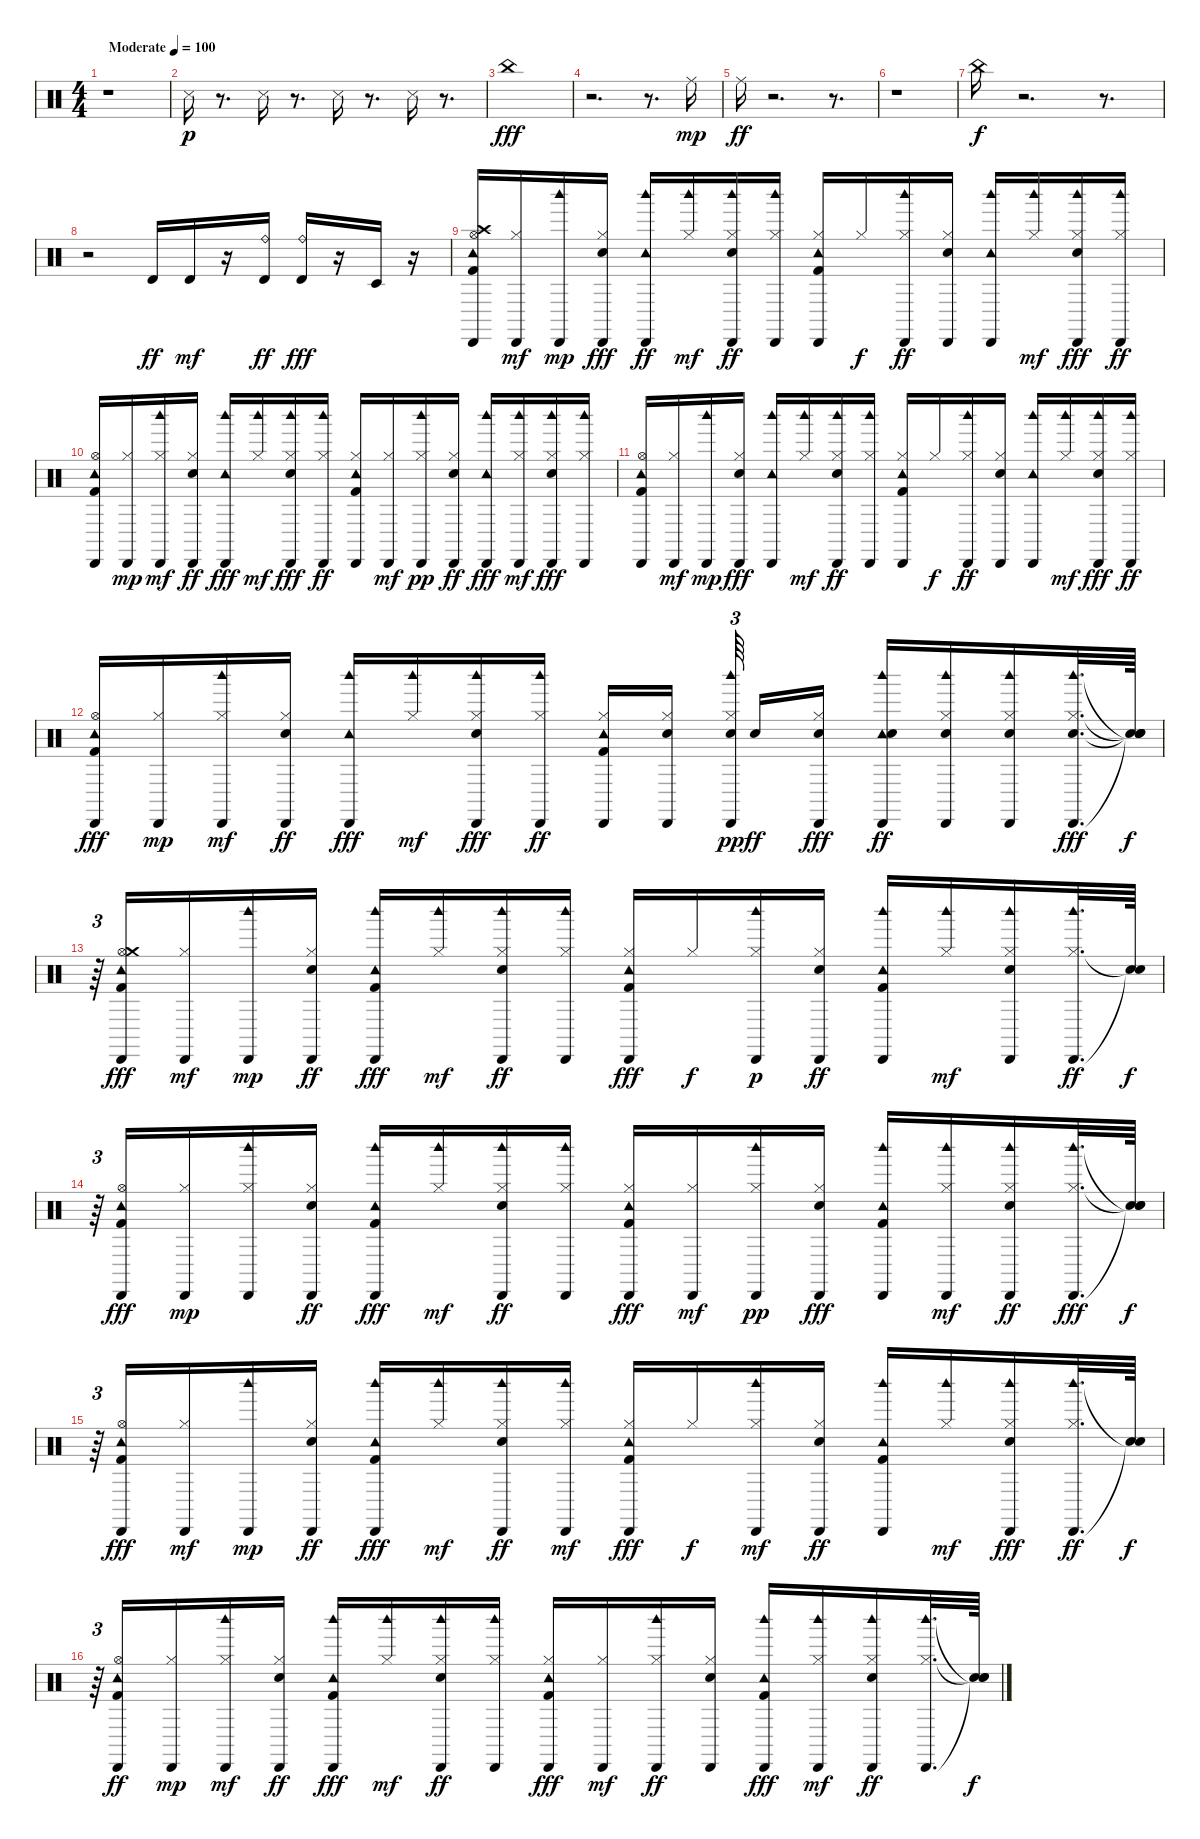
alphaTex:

\track "" {instrument percussion}
\staff {score}
\articulation defaults
\ts (4 4)
\tempo (100 "Moderate")
\clef neutral
\ks c
r.1{dy p} |
"Snare (side stick) 3".16 r.8{d} "Snare (side stick) 3".16{volume 13 balance 8} r.8{d} "Snare (side stick) 3".16 r.8{d} "Snare (side stick) 3".16 r.8{d} |
"China (hit)".1{dy fff} |
r.2{d} r.8{d} "Ride (middle)".16{dy mp} |
"Ride (middle)".16{dy ff} r.2{d} r.8{d} |
r.1 |
"China (hit)".16{dy f} r.2{d} r.8{d} |
r.2 "Timbale high (hit)".16{dy ff} "Timbale high (hit)".16{dy mf} r.16 ("Timbale high (hit)" "Ride (bell)").16{dy ff} ("Ride (bell)" "Timbale high (hit)").16{dy fff} r.16 "Timbale low (hit)".16 r.16 |
("Tambourine (hit)" "Crash high (hit)" "Kick (hit) 2" "Hi-Hat (open)" "Cabasa (hit)").16 ("Hi-Hat (closed)" "Cabasa (hit)").16{dy mf} ("Cabasa (hit)" "Woodblock high (hit)").16{dy mp} ("Hi-Hat (closed)" "Electric Snare (hit)" "Cabasa (hit)").16{dy fff} ("Cabasa (hit)" "Tambourine (hit)" "Woodblock high (hit)").16{dy ff} ("Woodblock high (hit)" "Hi-Hat (closed)").16{dy mf} ("Cabasa (hit)" "Woodblock high (hit)" "Electric Snare (hit)" "Hi-Hat (closed)").16{dy ff} ("Hi-Hat (closed)" "Cabasa (hit)" "Woodblock high (hit)").16 ("Cabasa (hit)" "Hi-Hat (closed)" "Tambourine (hit)" "Kick (hit) 2").16 "Hi-Hat (closed)".16{dy f} ("Cabasa (hit)" "Hi-Hat (closed)" "Woodblock high (hit)").16{dy ff} ("Cabasa (hit)" "Hi-Hat (closed)" "Electric Snare (hit)").16 ("Woodblock high (hit)" "Tambourine (hit)" "Cabasa (hit)").16 ("Hi-Hat (closed)" "Woodblock high (hit)").16{dy mf} ("Cabasa (hit)" "Hi-Hat (closed)" "Woodblock high (hit)" "Electric Snare (hit)").16{dy fff} ("Cabasa (hit)" "Hi-Hat (closed)" "Woodblock high (hit)").16{dy ff} |
("Hi-Hat (open)" "Tambourine (hit)" "Cabasa (hit)" "Kick (hit) 2").16 ("Cabasa (hit)" "Hi-Hat (closed)").16{dy mp} ("Woodblock high (hit)" "Cabasa (hit)" "Hi-Hat (closed)").16{dy mf} ("Hi-Hat (closed)" "Cabasa (hit)" "Electric Snare (hit)").16{dy ff} ("Cabasa (hit)" "Woodblock high (hit)" "Tambourine (hit)").16{dy fff} ("Woodblock high (hit)" "Hi-Hat (closed)").16{dy mf} ("Cabasa (hit)" "Hi-Hat (closed)" "Woodblock high (hit)" "Electric Snare (hit)").16{dy fff} ("Hi-Hat (closed)" "Cabasa (hit)" "Woodblock high (hit)").16{dy ff} ("Tambourine (hit)" "Kick (hit) 2" "Hi-Hat (closed)" "Cabasa (hit)").16 ("Hi-Hat (closed)" "Cabasa (hit)").16{dy mf} ("Cabasa (hit)" "Woodblock high (hit)" "Hi-Hat (closed)").16{dy pp} ("Electric Snare (hit)" "Cabasa (hit)" "Hi-Hat (closed)").16{dy ff} ("Woodblock high (hit)" "Tambourine (hit)" "Cabasa (hit)").16{dy fff} ("Woodblock high (hit)" "Hi-Hat (closed)" "Cabasa (hit)").16{dy mf} ("Cabasa (hit)" "Hi-Hat (closed)" "Woodblock high (hit)" "Electric Snare (hit)").16{dy fff} ("Woodblock high (hit)" "Cabasa (hit)" "Hi-Hat (closed)").16 |
("Tambourine (hit)" "Cabasa (hit)" "Hi-Hat (open)" "Kick (hit) 2").16 ("Hi-Hat (closed)" "Cabasa (hit)").16{dy mf} ("Woodblock high (hit)" "Cabasa (hit)").16{dy mp} ("Hi-Hat (closed)" "Cabasa (hit)" "Electric Snare (hit)").16{dy fff} ("Woodblock high (hit)" "Cabasa (hit)" "Tambourine (hit)").16 ("Woodblock high (hit)" "Hi-Hat (closed)").16{dy mf} ("Woodblock high (hit)" "Hi-Hat (closed)" "Electric Snare (hit)" "Cabasa (hit)").16{dy ff} ("Cabasa (hit)" "Hi-Hat (closed)" "Woodblock high (hit)").16 ("Cabasa (hit)" "Tambourine (hit)" "Kick (hit) 2" "Hi-Hat (closed)").16 "Hi-Hat (closed)".16{dy f} ("Cabasa (hit)" "Hi-Hat (closed)" "Woodblock high (hit)").16{dy ff} ("Electric Snare (hit)" "Cabasa (hit)" "Hi-Hat (closed)").16 ("Cabasa (hit)" "Woodblock high (hit)" "Tambourine (hit)").16 ("Hi-Hat (closed)" "Woodblock high (hit)").16{dy mf} ("Cabasa (hit)" "Woodblock high (hit)" "Hi-Hat (closed)" "Electric Snare (hit)").16{dy fff} ("Woodblock high (hit)" "Cabasa (hit)" "Hi-Hat (closed)").16{dy ff} |
("Hi-Hat (open)" "Cabasa (hit)" "Kick (hit) 2" "Tambourine (hit)").16{dy fff} ("Hi-Hat (closed)" "Cabasa (hit)").16{dy mp} ("Cabasa (hit)" "Woodblock high (hit)" "Hi-Hat (closed)").16{dy mf} ("Electric Snare (hit)" "Cabasa (hit)" "Hi-Hat (closed)").16{dy ff} ("Cabasa (hit)" "Woodblock high (hit)" "Tambourine (hit)").16{dy fff} ("Woodblock high (hit)" "Hi-Hat (closed)").16{dy mf} ("Woodblock high (hit)" "Cabasa (hit)" "Hi-Hat (closed)" "Electric Snare (hit)").16{dy fff} ("Hi-Hat (closed)" "Cabasa (hit)" "Woodblock high (hit)").16{dy ff} ("Tambourine (hit)" "Hi-Hat (closed)" "Cabasa (hit)" "Kick (hit) 2").16 ("Cabasa (hit)" "Hi-Hat (closed)" "Electric Snare (hit)").16{beam splitsecondary} ("Electric Snare (hit)" "Woodblock high (hit)" "Cabasa (hit)" "Hi-Hat (closed)").64{tu (3 2) dy pp beam splitsecondary} "Electric Snare (hit)".16{dy ff} ("Cabasa (hit)" "Hi-Hat (closed)" "Electric Snare (hit)").16{dy fff} ("Woodblock high (hit)" "Tambourine (hit)" "Cabasa (hit)" "Electric Snare (hit)").16{dy ff} ("Cabasa (hit)" "Woodblock high (hit)" "Hi-Hat (closed)" "Electric Snare (hit)").16 ("Cabasa (hit)" "Electric Snare (hit)" "Woodblock high (hit)" "Hi-Hat (closed)").16 ("Woodblock high (hit)" "Electric Snare (hit)" "Cabasa (hit)" "Hi-Hat (closed)").32{d dy fff} ("Snare (hit)"{t} "Snare (hit)"{t} "Snare (hit)"{t} "Snare (hit)"{t}).64{dy f} |
r.64{tu (3 2)} ("Hi-Hat (open)" "Tambourine (hit)" "Kick (hit) 2" "Crash medium (hit)" "Cabasa (hit)").16{dy fff} ("Hi-Hat (closed)" "Cabasa (hit)").16{dy mf} ("Woodblock high (hit)" "Cabasa (hit)").16{dy mp} ("Electric Snare (hit)" "Cabasa (hit)" "Hi-Hat (closed)").16{dy ff} ("Cabasa (hit)" "Woodblock high (hit)" "Tambourine (hit)" "Kick (hit) 2").16{dy fff} ("Hi-Hat (closed)" "Woodblock high (hit)").16{dy mf} ("Hi-Hat (closed)" "Cabasa (hit)" "Woodblock high (hit)" "Electric Snare (hit)").16{dy ff} ("Hi-Hat (closed)" "Cabasa (hit)" "Woodblock high (hit)").16 ("Kick (hit) 2" "Cabasa (hit)" "Tambourine (hit)" "Hi-Hat (closed)").16{dy fff} "Hi-Hat (closed)".16{dy f} ("Woodblock high (hit)" "Cabasa (hit)" "Hi-Hat (closed)").16{dy p} ("Hi-Hat (closed)" "Cabasa (hit)" "Electric Snare (hit)").16{dy ff} ("Kick (hit) 2" "Cabasa (hit)" "Woodblock high (hit)" "Tambourine (hit)").16 ("Hi-Hat (closed)" "Woodblock high (hit)").16{dy mf} ("Hi-Hat (closed)" "Woodblock high (hit)" "Electric Snare (hit)" "Cabasa (hit)").16 ("Hi-Hat (closed)" "Cabasa (hit)" "Woodblock high (hit)").32{d dy ff} ("Snare (hit)"{t} "Snare (hit)"{t}).64{dy f} |
r.64{tu (3 2)} ("Kick (hit) 2" "Hi-Hat (open)" "Tambourine (hit)" "Cabasa (hit)").16{dy fff} ("Cabasa (hit)" "Hi-Hat (closed)").16{dy mp} ("Hi-Hat (closed)" "Woodblock high (hit)" "Cabasa (hit)").16 ("Hi-Hat (closed)" "Electric Snare (hit)" "Cabasa (hit)").16{dy ff} ("Kick (hit) 2" "Cabasa (hit)" "Woodblock high (hit)" "Tambourine (hit)").16{dy fff} ("Hi-Hat (closed)" "Woodblock high (hit)").16{dy mf} ("Woodblock high (hit)" "Cabasa (hit)" "Electric Snare (hit)" "Hi-Hat (closed)").16{dy ff} ("Cabasa (hit)" "Woodblock high (hit)" "Hi-Hat (closed)").16 ("Tambourine (hit)" "Hi-Hat (closed)" "Cabasa (hit)" "Kick (hit) 2").16{dy fff} ("Cabasa (hit)" "Hi-Hat (closed)").16{dy mf} ("Cabasa (hit)" "Woodblock high (hit)" "Hi-Hat (closed)").16{dy pp} ("Hi-Hat (closed)" "Electric Snare (hit)" "Cabasa (hit)").16{dy fff} ("Kick (hit) 2" "Woodblock high (hit)" "Cabasa (hit)" "Tambourine (hit)").16 ("Hi-Hat (closed)" "Cabasa (hit)" "Woodblock high (hit)").16{dy mf} ("Woodblock high (hit)" "Electric Snare (hit)" "Cabasa (hit)" "Hi-Hat (closed)").16{dy ff} ("Woodblock high (hit)" "Cabasa (hit)" "Hi-Hat (closed)").32{d dy fff} ("Snare (hit)"{t} "Snare (hit)"{t} "Snare (hit)"{t}).64{dy f} |
r.64{tu (3 2)} ("Tambourine (hit)" "Kick (hit) 2" "Cabasa (hit)" "Hi-Hat (open)").16{dy fff} ("Hi-Hat (closed)" "Cabasa (hit)").16{dy mf} ("Woodblock high (hit)" "Cabasa (hit)").16{dy mp} ("Electric Snare (hit)" "Hi-Hat (closed)" "Cabasa (hit)").16{dy ff} ("Cabasa (hit)" "Woodblock high (hit)" "Kick (hit) 2" "Tambourine (hit)").16{dy fff} ("Woodblock high (hit)" "Hi-Hat (closed)").16{dy mf} ("Woodblock high (hit)" "Hi-Hat (closed)" "Cabasa (hit)" "Electric Snare (hit)").16{dy ff} ("Woodblock high (hit)" "Cabasa (hit)" "Hi-Hat (closed)").16{dy mf} ("Hi-Hat (closed)" "Tambourine (hit)" "Kick (hit) 2" "Cabasa (hit)").16{dy fff} "Hi-Hat (closed)".16{dy f} ("Hi-Hat (closed)" "Woodblock high (hit)" "Cabasa (hit)").16{dy mf} ("Cabasa (hit)" "Hi-Hat (closed)" "Electric Snare (hit)").16{dy ff} ("Kick (hit) 2" "Woodblock high (hit)" "Tambourine (hit)" "Cabasa (hit)").16 ("Hi-Hat (closed)" "Woodblock high (hit)").16{dy mf} ("Hi-Hat (closed)" "Cabasa (hit)" "Woodblock high (hit)" "Electric Snare (hit)").16{dy fff} ("Cabasa (hit)" "Woodblock high (hit)" "Hi-Hat (closed)").32{d dy ff} ("Snare (hit)"{t} "Snare (hit)"{t}).64{dy f} |
r.64{tu (3 2)} ("Kick (hit) 2" "Tambourine (hit)" "Cabasa (hit)" "Hi-Hat (open)").16{dy ff} ("Hi-Hat (closed)" "Cabasa (hit)").16{dy mp} ("Woodblock high (hit)" "Cabasa (hit)" "Hi-Hat (closed)").16{dy mf} ("Electric Snare (hit)" "Hi-Hat (closed)" "Cabasa (hit)").16{dy ff} ("Kick (hit) 2" "Cabasa (hit)" "Woodblock high (hit)" "Tambourine (hit)").16{dy fff} ("Woodblock high (hit)" "Hi-Hat (closed)").16{dy mf} ("Cabasa (hit)" "Woodblock high (hit)" "Electric Snare (hit)" "Hi-Hat (closed)").16{dy ff} ("Hi-Hat (closed)" "Cabasa (hit)" "Woodblock high (hit)").16 ("Cabasa (hit)" "Kick (hit) 2" "Hi-Hat (closed)" "Tambourine (hit)").16{dy fff} ("Cabasa (hit)" "Hi-Hat (closed)").16{dy mf} ("Cabasa (hit)" "Hi-Hat (closed)" "Woodblock high (hit)").16{dy ff} ("Electric Snare (hit)" "Hi-Hat (closed)" "Cabasa (hit)").16 ("Woodblock high (hit)" "Kick (hit) 2" "Cabasa (hit)" "Tambourine (hit)").16{dy fff} ("Cabasa (hit)" "Hi-Hat (closed)" "Woodblock high (hit)").16{dy mf} ("Electric Snare (hit)" "Woodblock high (hit)" "Hi-Hat (closed)" "Cabasa (hit)").16{dy ff} ("Hi-Hat (closed)" "Cabasa (hit)" "Woodblock high (hit)").32{d} ("Snare (hit)"{t} "Snare (hit)"{t} "Snare (hit)"{t}).64{dy f}
